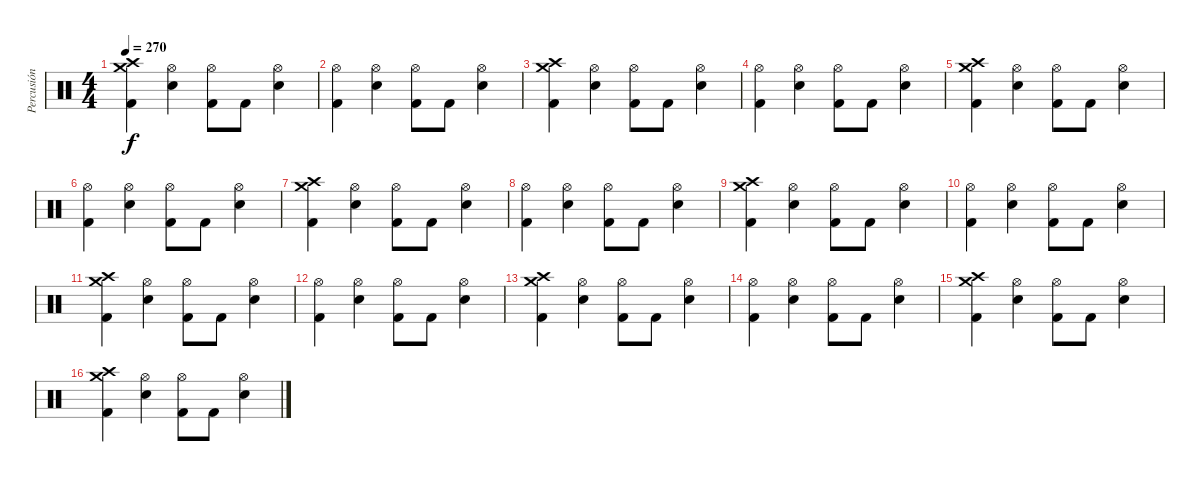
\track ("Percusión" "Percusión") {instrument percussion}
\staff {score}
\articulation defaults
\ts (4 4)
\tempo 270
\clef neutral
\ks c
("Crash high (hit)" "Crash medium (hit)" "Kick (hit) 2").4{dy f} ("Hi-Hat (open)" "Electric Snare (hit)").4 ("Hi-Hat (open)" "Kick (hit) 2").8 "Kick (hit) 2".8 ("Hi-Hat (open)" "Electric Snare (hit)").4 |
("Hi-Hat (open)" "Kick (hit) 2").4 ("Hi-Hat (open)" "Electric Snare (hit)").4 ("Hi-Hat (open)" "Kick (hit) 2").8 "Kick (hit) 2".8 ("Hi-Hat (open)" "Electric Snare (hit)").4 |
("Crash high (hit)" "Crash medium (hit)" "Kick (hit) 2").4 ("Hi-Hat (open)" "Electric Snare (hit)").4 ("Hi-Hat (open)" "Kick (hit) 2").8 "Kick (hit) 2".8 ("Hi-Hat (open)" "Electric Snare (hit)").4 |
("Hi-Hat (open)" "Kick (hit) 2").4 ("Hi-Hat (open)" "Electric Snare (hit)").4 ("Hi-Hat (open)" "Kick (hit) 2").8 "Kick (hit) 2".8 ("Hi-Hat (open)" "Electric Snare (hit)").4 |
("Crash high (hit)" "Crash medium (hit)" "Kick (hit) 2").4 ("Hi-Hat (open)" "Electric Snare (hit)").4 ("Hi-Hat (open)" "Kick (hit) 2").8 "Kick (hit) 2".8 ("Hi-Hat (open)" "Electric Snare (hit)").4 |
("Hi-Hat (open)" "Kick (hit) 2").4 ("Hi-Hat (open)" "Electric Snare (hit)").4 ("Hi-Hat (open)" "Kick (hit) 2").8 "Kick (hit) 2".8 ("Hi-Hat (open)" "Electric Snare (hit)").4 |
("Crash high (hit)" "Crash medium (hit)" "Kick (hit) 2").4 ("Hi-Hat (open)" "Electric Snare (hit)").4 ("Hi-Hat (open)" "Kick (hit) 2").8 "Kick (hit) 2".8 ("Hi-Hat (open)" "Electric Snare (hit)").4 |
("Hi-Hat (open)" "Kick (hit) 2").4 ("Hi-Hat (open)" "Electric Snare (hit)").4 ("Hi-Hat (open)" "Kick (hit) 2").8 "Kick (hit) 2".8 ("Hi-Hat (open)" "Electric Snare (hit)").4 |
("Crash high (hit)" "Crash medium (hit)" "Kick (hit) 2").4 ("Hi-Hat (open)" "Electric Snare (hit)").4 ("Hi-Hat (open)" "Kick (hit) 2").8 "Kick (hit) 2".8 ("Hi-Hat (open)" "Electric Snare (hit)").4 |
("Hi-Hat (open)" "Kick (hit) 2").4 ("Hi-Hat (open)" "Electric Snare (hit)").4 ("Hi-Hat (open)" "Kick (hit) 2").8 "Kick (hit) 2".8 ("Hi-Hat (open)" "Electric Snare (hit)").4 |
("Crash high (hit)" "Crash medium (hit)" "Kick (hit) 2").4 ("Hi-Hat (open)" "Electric Snare (hit)").4 ("Hi-Hat (open)" "Kick (hit) 2").8 "Kick (hit) 2".8 ("Hi-Hat (open)" "Electric Snare (hit)").4 |
("Hi-Hat (open)" "Kick (hit) 2").4 ("Hi-Hat (open)" "Electric Snare (hit)").4 ("Hi-Hat (open)" "Kick (hit) 2").8 "Kick (hit) 2".8 ("Hi-Hat (open)" "Electric Snare (hit)").4 |
("Crash high (hit)" "Crash medium (hit)" "Kick (hit) 2").4 ("Hi-Hat (open)" "Electric Snare (hit)").4 ("Hi-Hat (open)" "Kick (hit) 2").8 "Kick (hit) 2".8 ("Hi-Hat (open)" "Electric Snare (hit)").4 |
("Hi-Hat (open)" "Kick (hit) 2").4 ("Hi-Hat (open)" "Electric Snare (hit)").4 ("Hi-Hat (open)" "Kick (hit) 2").8 "Kick (hit) 2".8 ("Hi-Hat (open)" "Electric Snare (hit)").4 |
("Crash high (hit)" "Crash medium (hit)" "Kick (hit) 2").4 ("Hi-Hat (open)" "Electric Snare (hit)").4 ("Hi-Hat (open)" "Kick (hit) 2").8 "Kick (hit) 2".8 ("Hi-Hat (open)" "Electric Snare (hit)").4 |
("Crash high (hit)" "Crash medium (hit)" "Kick (hit) 2").4 ("Hi-Hat (open)" "Electric Snare (hit)").4 ("Hi-Hat (open)" "Kick (hit) 2").8 "Kick (hit) 2".8 ("Hi-Hat (open)" "Electric Snare (hit)").4
